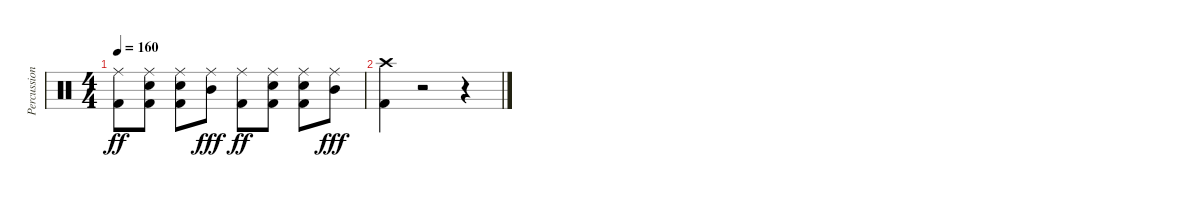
\track ("Percussion" "Percussion") {instrument percussion}
\staff {score}
\articulation defaults
\ts (4 4)
\tempo 160
\clef neutral
\ks c
("Ride (middle)" "Kick (hit) 2").8{dy ff} ("Ride (middle)" "Kick (hit) 2" "Snare (hit) 2").8 ("Ride (middle)" "Kick (hit) 2" "Snare (hit) 2").8 ("Mid Tom (hit)" "Ride (middle)").8{dy fff} ("Ride (middle)" "Kick (hit) 2").8{dy ff} ("Ride (middle)" "Kick (hit) 2" "Snare (hit) 2").8 ("Ride (middle)" "Kick (hit) 2" "Snare (hit) 2").8 ("Mid Tom (hit)" "Ride (middle)").8{dy fff} |
("Kick (hit) 2" "Crash high (hit)").4 r.2 r.4
